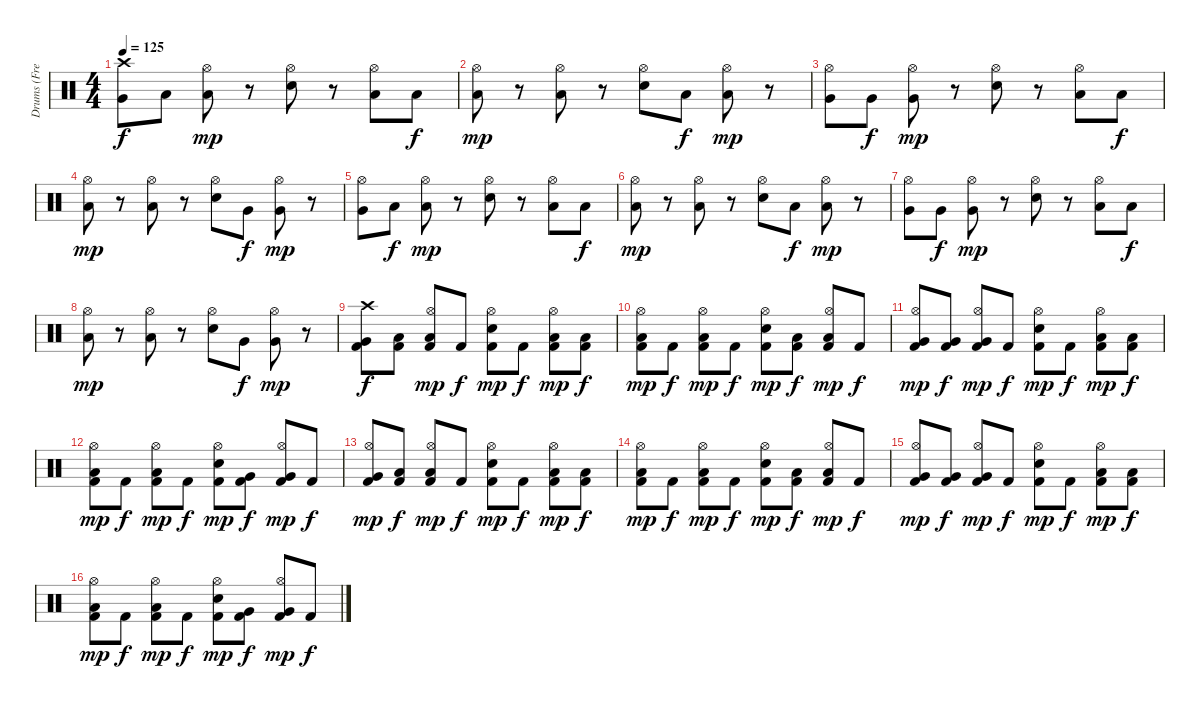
\track ("Drums (Fredrik Andersson)" "Drums (Fre") {instrument percussion}
\staff {score}
\articulation defaults
\ts (4 4)
\tempo 125
\clef neutral
\ks c
("Crash high (hit)" "Very Low Tom (hit)").8{dy f} "Low Tom (hit)".8 ("Hi-Hat (open)" "Low Tom (hit)").8{dy mp} r.8 ("Hi-Hat (open)" "Snare (hit) 2").8 r.8 ("Hi-Hat (open)" "Low Floor Tom (hit)").8 "Low Floor Tom (hit)".8{dy f} |
("Hi-Hat (open)" "Low Floor Tom (hit)").8{dy mp} r.8 ("Hi-Hat (open)" "Low Floor Tom (hit)").8 r.8 ("Hi-Hat (open)" "Snare (hit) 2").8 "Low Tom (hit)".8{dy f} ("Hi-Hat (open)" "Low Tom (hit)").8{dy mp} r.8 |
("Hi-Hat (open)" "Very Low Tom (hit)").8 "Very Low Tom (hit)".8{dy f} ("Hi-Hat (open)" "Very Low Tom (hit)").8{dy mp} r.8 ("Hi-Hat (open)" "Snare (hit) 2").8 r.8 ("Hi-Hat (open)" "Low Floor Tom (hit)").8 "Low Floor Tom (hit)".8{dy f} |
("Hi-Hat (open)" "Low Floor Tom (hit)").8{dy mp} r.8 ("Hi-Hat (open)" "Low Floor Tom (hit)").8 r.8 ("Hi-Hat (open)" "Snare (hit) 2").8 "Very Low Tom (hit)".8{dy f} ("Hi-Hat (open)" "Very Low Tom (hit)").8{dy mp} r.8 |
("Hi-Hat (open)" "Very Low Tom (hit)").8 "Low Tom (hit)".8{dy f} ("Hi-Hat (open)" "Low Tom (hit)").8{dy mp} r.8 ("Hi-Hat (open)" "Snare (hit) 2").8 r.8 ("Hi-Hat (open)" "Low Floor Tom (hit)").8 "Low Floor Tom (hit)".8{dy f} |
("Hi-Hat (open)" "Low Floor Tom (hit)").8{dy mp} r.8 ("Hi-Hat (open)" "Low Floor Tom (hit)").8 r.8 ("Hi-Hat (open)" "Snare (hit) 2").8 "Low Tom (hit)".8{dy f} ("Hi-Hat (open)" "Low Tom (hit)").8{dy mp} r.8 |
("Hi-Hat (open)" "Very Low Tom (hit)").8 "Very Low Tom (hit)".8{dy f} ("Hi-Hat (open)" "Very Low Tom (hit)").8{dy mp} r.8 ("Hi-Hat (open)" "Snare (hit) 2").8 r.8 ("Hi-Hat (open)" "Low Floor Tom (hit)").8 "Low Floor Tom (hit)".8{dy f} |
("Hi-Hat (open)" "Low Floor Tom (hit)").8{dy mp} r.8 ("Hi-Hat (open)" "Low Floor Tom (hit)").8 r.8 ("Hi-Hat (open)" "Snare (hit) 2").8 "Very Low Tom (hit)".8{dy f} ("Hi-Hat (open)" "Very Low Tom (hit)").8{dy mp} r.8 |
("Crash high (hit)" "Very Low Tom (hit)" "Kick (hit) 2").8{dy f} ("Low Tom (hit)" "Kick (hit) 2").8 ("Hi-Hat (open)" "Low Tom (hit)" "Kick (hit) 2").8{dy mp} "Kick (hit) 2".8{dy f} ("Hi-Hat (open)" "Snare (hit) 2" "Kick (hit) 2").8{dy mp} "Kick (hit) 2".8{dy f} ("Hi-Hat (open)" "Low Floor Tom (hit)" "Kick (hit) 2").8{dy mp} ("Low Floor Tom (hit)" "Kick (hit) 2").8{dy f} |
("Hi-Hat (open)" "Low Floor Tom (hit)" "Kick (hit) 2").8{dy mp} "Kick (hit) 2".8{dy f} ("Hi-Hat (open)" "Low Floor Tom (hit)" "Kick (hit) 2").8{dy mp} "Kick (hit) 2".8{dy f} ("Hi-Hat (open)" "Snare (hit) 2" "Kick (hit) 2").8{dy mp} ("Low Tom (hit)" "Kick (hit) 2").8{dy f} ("Hi-Hat (open)" "Low Tom (hit)" "Kick (hit) 2").8{dy mp} "Kick (hit) 2".8{dy f} |
("Hi-Hat (open)" "Very Low Tom (hit)" "Kick (hit) 2").8{dy mp} ("Very Low Tom (hit)" "Kick (hit) 2").8{dy f} ("Hi-Hat (open)" "Very Low Tom (hit)" "Kick (hit) 2").8{dy mp} "Kick (hit) 2".8{dy f} ("Hi-Hat (open)" "Snare (hit) 2" "Kick (hit) 2").8{dy mp} "Kick (hit) 2".8{dy f} ("Hi-Hat (open)" "Low Floor Tom (hit)" "Kick (hit) 2").8{dy mp} ("Low Floor Tom (hit)" "Kick (hit) 2").8{dy f} |
("Hi-Hat (open)" "Low Floor Tom (hit)" "Kick (hit) 2").8{dy mp} "Kick (hit) 2".8{dy f} ("Hi-Hat (open)" "Low Floor Tom (hit)" "Kick (hit) 2").8{dy mp} "Kick (hit) 2".8{dy f} ("Hi-Hat (open)" "Snare (hit) 2" "Kick (hit) 2").8{dy mp} ("Very Low Tom (hit)" "Kick (hit) 2").8{dy f} ("Hi-Hat (open)" "Very Low Tom (hit)" "Kick (hit) 2").8{dy mp} "Kick (hit) 2".8{dy f} |
("Hi-Hat (open)" "Very Low Tom (hit)" "Kick (hit) 2").8{dy mp volume 13} ("Low Tom (hit)" "Kick (hit) 2").8{dy f} ("Hi-Hat (open)" "Low Tom (hit)" "Kick (hit) 2").8{dy mp} "Kick (hit) 2".8{dy f} ("Hi-Hat (open)" "Snare (hit) 2" "Kick (hit) 2").8{dy mp volume 12} "Kick (hit) 2".8{dy f} ("Hi-Hat (open)" "Low Floor Tom (hit)" "Kick (hit) 2").8{dy mp} ("Low Floor Tom (hit)" "Kick (hit) 2").8{dy f} |
("Hi-Hat (open)" "Low Floor Tom (hit)" "Kick (hit) 2").8{dy mp volume 11} "Kick (hit) 2".8{dy f} ("Hi-Hat (open)" "Low Floor Tom (hit)" "Kick (hit) 2").8{dy mp} "Kick (hit) 2".8{dy f} ("Hi-Hat (open)" "Snare (hit) 2" "Kick (hit) 2").8{dy mp volume 10} ("Low Tom (hit)" "Kick (hit) 2").8{dy f} ("Hi-Hat (open)" "Low Tom (hit)" "Kick (hit) 2").8{dy mp} "Kick (hit) 2".8{dy f} |
("Hi-Hat (open)" "Very Low Tom (hit)" "Kick (hit) 2").8{dy mp volume 9} ("Very Low Tom (hit)" "Kick (hit) 2").8{dy f} ("Hi-Hat (open)" "Very Low Tom (hit)" "Kick (hit) 2").8{dy mp} "Kick (hit) 2".8{dy f} ("Hi-Hat (open)" "Snare (hit) 2" "Kick (hit) 2").8{dy mp volume 8} "Kick (hit) 2".8{dy f} ("Hi-Hat (open)" "Low Floor Tom (hit)" "Kick (hit) 2").8{dy mp} ("Low Floor Tom (hit)" "Kick (hit) 2").8{dy f} |
("Hi-Hat (open)" "Low Floor Tom (hit)" "Kick (hit) 2").8{dy mp volume 7} "Kick (hit) 2".8{dy f} ("Hi-Hat (open)" "Low Floor Tom (hit)" "Kick (hit) 2").8{dy mp} "Kick (hit) 2".8{dy f} ("Hi-Hat (open)" "Snare (hit) 2" "Kick (hit) 2").8{dy mp volume 6} ("Very Low Tom (hit)" "Kick (hit) 2").8{dy f} ("Hi-Hat (open)" "Very Low Tom (hit)" "Kick (hit) 2").8{dy mp} "Kick (hit) 2".8{dy f}
